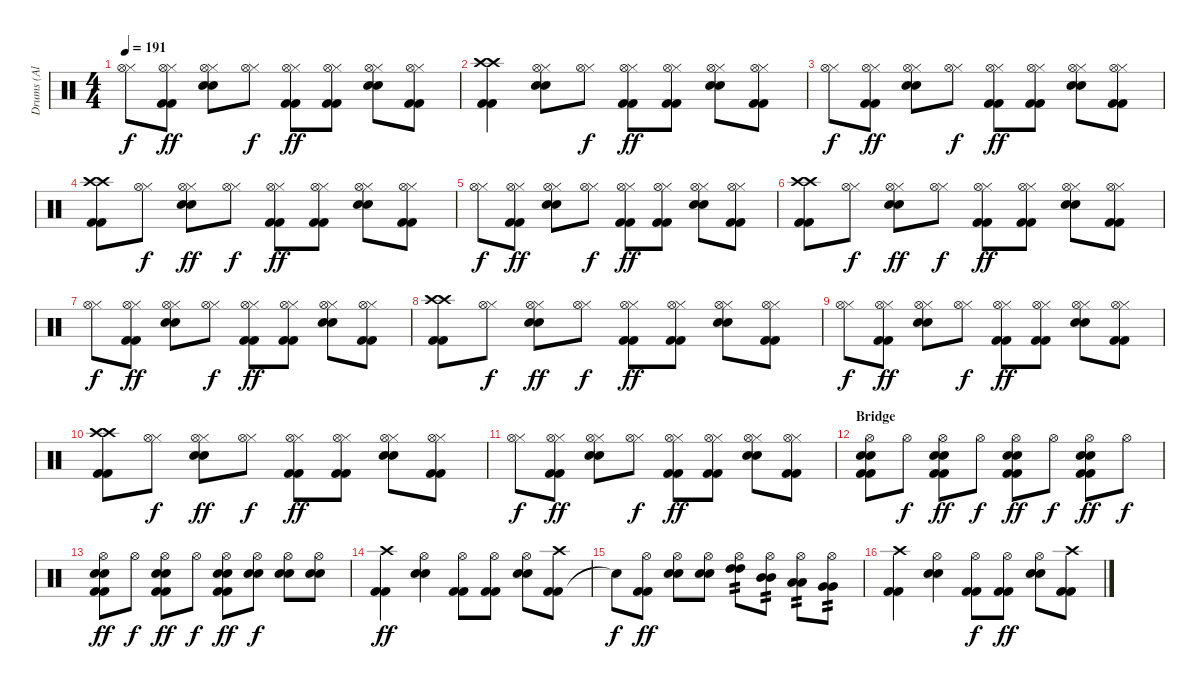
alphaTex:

\track ("Drums (Al Sobrante)" "Drums (Al ") {instrument percussion}
\staff {score}
\articulation defaults
\ts (4 4)
\tempo 191
\clef neutral
\ks c
("Hi-Hat (closed)" "Hi-Hat (open)").8{dy f} ("Kick (hit) 2" "Kick (hit) 2" "Hi-Hat (closed)" "Hi-Hat (open)").8{dy ff} ("Electric Snare (hit)" "Electric Snare (hit)" "Hi-Hat (closed)" "Hi-Hat (open)").8 ("Hi-Hat (closed)" "Hi-Hat (open)").8{dy f} ("Kick (hit) 2" "Kick (hit) 2" "Hi-Hat (closed)" "Hi-Hat (open)").8{dy ff} ("Kick (hit) 2" "Kick (hit) 2" "Hi-Hat (closed)" "Hi-Hat (open)").8 ("Electric Snare (hit)" "Electric Snare (hit)" "Hi-Hat (closed)" "Hi-Hat (open)").8 ("Kick (hit) 2" "Kick (hit) 2" "Hi-Hat (closed)" "Hi-Hat (open)").8 |
("Kick (hit) 2" "Kick (hit) 2" "Crash high (hit)" "Crash high (hit)").4 ("Electric Snare (hit)" "Electric Snare (hit)" "Hi-Hat (closed)" "Hi-Hat (open)").8 ("Hi-Hat (closed)" "Hi-Hat (open)").8{dy f} ("Kick (hit) 2" "Kick (hit) 2" "Hi-Hat (closed)" "Hi-Hat (open)").8{dy ff} ("Kick (hit) 2" "Kick (hit) 2" "Hi-Hat (closed)" "Hi-Hat (open)").8 ("Electric Snare (hit)" "Electric Snare (hit)" "Hi-Hat (closed)" "Hi-Hat (open)").8 ("Kick (hit) 2" "Kick (hit) 2" "Hi-Hat (closed)" "Hi-Hat (open)").8 |
("Hi-Hat (closed)" "Hi-Hat (open)").8{dy f} ("Kick (hit) 2" "Kick (hit) 2" "Hi-Hat (closed)" "Hi-Hat (open)").8{dy ff} ("Electric Snare (hit)" "Electric Snare (hit)" "Hi-Hat (closed)" "Hi-Hat (open)").8 ("Hi-Hat (closed)" "Hi-Hat (open)").8{dy f} ("Kick (hit) 2" "Kick (hit) 2" "Hi-Hat (closed)" "Hi-Hat (open)").8{dy ff} ("Kick (hit) 2" "Kick (hit) 2" "Hi-Hat (closed)" "Hi-Hat (open)").8 ("Electric Snare (hit)" "Electric Snare (hit)" "Hi-Hat (closed)" "Hi-Hat (open)").8 ("Kick (hit) 2" "Kick (hit) 2" "Hi-Hat (closed)" "Hi-Hat (open)").8 |
("Kick (hit) 2" "Kick (hit) 2" "Crash high (hit)" "Crash high (hit)").8 ("Hi-Hat (closed)" "Hi-Hat (open)").8{dy f} ("Electric Snare (hit)" "Electric Snare (hit)" "Hi-Hat (closed)" "Hi-Hat (open)").8{dy ff} ("Hi-Hat (closed)" "Hi-Hat (open)").8{dy f} ("Kick (hit) 2" "Kick (hit) 2" "Hi-Hat (closed)" "Hi-Hat (open)").8{dy ff} ("Kick (hit) 2" "Kick (hit) 2" "Hi-Hat (closed)" "Hi-Hat (open)").8 ("Electric Snare (hit)" "Electric Snare (hit)" "Hi-Hat (closed)" "Hi-Hat (open)").8 ("Kick (hit) 2" "Kick (hit) 2" "Hi-Hat (closed)" "Hi-Hat (open)").8 |
("Hi-Hat (closed)" "Hi-Hat (open)").8{dy f} ("Kick (hit) 2" "Kick (hit) 2" "Hi-Hat (closed)" "Hi-Hat (open)").8{dy ff} ("Electric Snare (hit)" "Electric Snare (hit)" "Hi-Hat (closed)" "Hi-Hat (open)").8 ("Hi-Hat (closed)" "Hi-Hat (open)").8{dy f} ("Kick (hit) 2" "Kick (hit) 2" "Hi-Hat (closed)" "Hi-Hat (open)").8{dy ff} ("Kick (hit) 2" "Kick (hit) 2" "Hi-Hat (closed)" "Hi-Hat (open)").8 ("Electric Snare (hit)" "Electric Snare (hit)" "Hi-Hat (closed)" "Hi-Hat (open)").8 ("Kick (hit) 2" "Kick (hit) 2" "Hi-Hat (closed)" "Hi-Hat (open)").8 |
("Kick (hit) 2" "Kick (hit) 2" "Crash high (hit)" "Crash high (hit)").8 ("Hi-Hat (closed)" "Hi-Hat (open)").8{dy f} ("Electric Snare (hit)" "Electric Snare (hit)" "Hi-Hat (closed)" "Hi-Hat (open)").8{dy ff} ("Hi-Hat (closed)" "Hi-Hat (open)").8{dy f} ("Kick (hit) 2" "Kick (hit) 2" "Hi-Hat (closed)" "Hi-Hat (open)").8{dy ff} ("Kick (hit) 2" "Kick (hit) 2" "Hi-Hat (closed)" "Hi-Hat (open)").8 ("Electric Snare (hit)" "Electric Snare (hit)" "Hi-Hat (closed)" "Hi-Hat (open)").8 ("Kick (hit) 2" "Kick (hit) 2" "Hi-Hat (closed)" "Hi-Hat (open)").8 |
("Hi-Hat (closed)" "Hi-Hat (open)").8{dy f} ("Kick (hit) 2" "Kick (hit) 2" "Hi-Hat (closed)" "Hi-Hat (open)").8{dy ff} ("Electric Snare (hit)" "Electric Snare (hit)" "Hi-Hat (closed)" "Hi-Hat (open)").8 ("Hi-Hat (closed)" "Hi-Hat (open)").8{dy f} ("Kick (hit) 2" "Kick (hit) 2" "Hi-Hat (closed)" "Hi-Hat (open)").8{dy ff} ("Kick (hit) 2" "Kick (hit) 2" "Hi-Hat (closed)" "Hi-Hat (open)").8 ("Electric Snare (hit)" "Electric Snare (hit)" "Hi-Hat (closed)" "Hi-Hat (open)").8 ("Kick (hit) 2" "Kick (hit) 2" "Hi-Hat (closed)" "Hi-Hat (open)").8 |
("Kick (hit) 2" "Kick (hit) 2" "Crash high (hit)" "Crash high (hit)").8 ("Hi-Hat (closed)" "Hi-Hat (open)").8{dy f} ("Electric Snare (hit)" "Electric Snare (hit)" "Hi-Hat (closed)" "Hi-Hat (open)").8{dy ff} ("Hi-Hat (closed)" "Hi-Hat (open)").8{dy f} ("Kick (hit) 2" "Kick (hit) 2" "Hi-Hat (closed)" "Hi-Hat (open)").8{dy ff} ("Kick (hit) 2" "Kick (hit) 2" "Hi-Hat (closed)" "Hi-Hat (open)").8 ("Electric Snare (hit)" "Electric Snare (hit)" "Hi-Hat (closed)" "Hi-Hat (open)").8 ("Kick (hit) 2" "Kick (hit) 2" "Hi-Hat (closed)" "Hi-Hat (open)").8 |
("Hi-Hat (closed)" "Hi-Hat (open)").8{dy f} ("Kick (hit) 2" "Kick (hit) 2" "Hi-Hat (closed)" "Hi-Hat (open)").8{dy ff} ("Electric Snare (hit)" "Electric Snare (hit)" "Hi-Hat (closed)" "Hi-Hat (open)").8 ("Hi-Hat (closed)" "Hi-Hat (open)").8{dy f} ("Kick (hit) 2" "Kick (hit) 2" "Hi-Hat (closed)" "Hi-Hat (open)").8{dy ff} ("Kick (hit) 2" "Kick (hit) 2" "Hi-Hat (closed)" "Hi-Hat (open)").8 ("Electric Snare (hit)" "Electric Snare (hit)" "Hi-Hat (closed)" "Hi-Hat (open)").8 ("Kick (hit) 2" "Kick (hit) 2" "Hi-Hat (closed)" "Hi-Hat (open)").8 |
("Kick (hit) 2" "Kick (hit) 2" "Crash high (hit)" "Crash high (hit)").8 ("Hi-Hat (closed)" "Hi-Hat (open)").8{dy f} ("Electric Snare (hit)" "Electric Snare (hit)" "Hi-Hat (closed)" "Hi-Hat (open)").8{dy ff} ("Hi-Hat (closed)" "Hi-Hat (open)").8{dy f} ("Kick (hit) 2" "Kick (hit) 2" "Hi-Hat (closed)" "Hi-Hat (open)").8{dy ff} ("Kick (hit) 2" "Kick (hit) 2" "Hi-Hat (closed)" "Hi-Hat (open)").8 ("Electric Snare (hit)" "Electric Snare (hit)" "Hi-Hat (closed)" "Hi-Hat (open)").8 ("Kick (hit) 2" "Kick (hit) 2" "Hi-Hat (closed)" "Hi-Hat (open)").8 |
("Hi-Hat (closed)" "Hi-Hat (open)").8{dy f} ("Kick (hit) 2" "Kick (hit) 2" "Hi-Hat (closed)" "Hi-Hat (open)").8{dy ff} ("Electric Snare (hit)" "Electric Snare (hit)" "Hi-Hat (closed)" "Hi-Hat (open)").8 ("Hi-Hat (closed)" "Hi-Hat (open)").8{dy f} ("Kick (hit) 2" "Kick (hit) 2" "Hi-Hat (closed)" "Hi-Hat (open)").8{dy ff} ("Kick (hit) 2" "Kick (hit) 2" "Hi-Hat (closed)" "Hi-Hat (open)").8 ("Electric Snare (hit)" "Electric Snare (hit)" "Hi-Hat (closed)" "Hi-Hat (open)").8 ("Kick (hit) 2" "Kick (hit) 2" "Hi-Hat (closed)" "Hi-Hat (open)").8 |
\section ("" "Bridge")
("Kick (hit) 2" "Kick (hit) 2" "Electric Snare (hit)" "Electric Snare (hit)" "Hi-Hat (open)").8 "Hi-Hat (open)".8{dy f} ("Kick (hit) 2" "Kick (hit) 2" "Electric Snare (hit)" "Electric Snare (hit)" "Hi-Hat (open)").8{dy ff} "Hi-Hat (open)".8{dy f} ("Kick (hit) 2" "Kick (hit) 2" "Electric Snare (hit)" "Electric Snare (hit)" "Hi-Hat (open)").8{dy ff} "Hi-Hat (open)".8{dy f} ("Kick (hit) 2" "Kick (hit) 2" "Electric Snare (hit)" "Electric Snare (hit)" "Hi-Hat (open)").8{dy ff} "Hi-Hat (open)".8{dy f} |
("Kick (hit) 2" "Kick (hit) 2" "Electric Snare (hit)" "Electric Snare (hit)" "Hi-Hat (open)").8{dy ff} "Hi-Hat (open)".8{dy f} ("Kick (hit) 2" "Kick (hit) 2" "Electric Snare (hit)" "Electric Snare (hit)" "Hi-Hat (open)").8{dy ff} "Hi-Hat (open)".8{dy f} ("Kick (hit) 2" "Kick (hit) 2" "Electric Snare (hit)" "Electric Snare (hit)" "Hi-Hat (open)").8{dy ff} ("Electric Snare (hit)" "Electric Snare (hit)" "Hi-Hat (open)").8{dy f} ("Electric Snare (hit)" "Electric Snare (hit)" "Hi-Hat (open)").8 ("Electric Snare (hit)" "Electric Snare (hit)" "Hi-Hat (open)").8 |
("Kick (hit) 2" "Kick (hit) 2" "Crash high (hit)").4{dy ff} ("Electric Snare (hit)" "Electric Snare (hit)" "Hi-Hat (open)").4 ("Kick (hit) 2" "Kick (hit) 2" "Hi-Hat (open)").8 ("Kick (hit) 2" "Kick (hit) 2" "Hi-Hat (open)").8 ("Electric Snare (hit)" "Electric Snare (hit)" "Hi-Hat (open)").8 ("Kick (hit) 2" "Kick (hit) 2" "Crash high (hit)").8 |
"Snare (hit)"{t}.8{dy f} ("Kick (hit) 2" "Kick (hit) 2" "Hi-Hat (open)").8{dy ff} ("Electric Snare (hit)" "Electric Snare (hit)" "Hi-Hat (open)").8 ("Electric Snare (hit)" "Electric Snare (hit)" "Hi-Hat (open)").8 ("High Tom (hit)" "High Tom (hit)" "Hi-Hat (open)").8{tp 2} ("Mid Tom (hit)" "Mid Tom (hit)" "Hi-Hat (open)").8{tp 2} ("Low Tom (hit)" "Low Tom (hit)" "Hi-Hat (open)").8{tp 2} ("Very Low Tom (hit)" "Very Low Tom (hit)" "Hi-Hat (open)").8{tp 2} |
("Kick (hit) 2" "Kick (hit) 2" "Crash high (hit)").4 ("Electric Snare (hit)" "Electric Snare (hit)" "Hi-Hat (open)").4 ("Kick (hit) 2" "Kick (hit) 2" "Hi-Hat (open)").8{dy f} ("Kick (hit) 2" "Kick (hit) 2" "Hi-Hat (open)").8{dy ff} ("Electric Snare (hit)" "Electric Snare (hit)" "Hi-Hat (open)").8 ("Kick (hit) 2" "Kick (hit) 2" "Crash high (hit)").8
